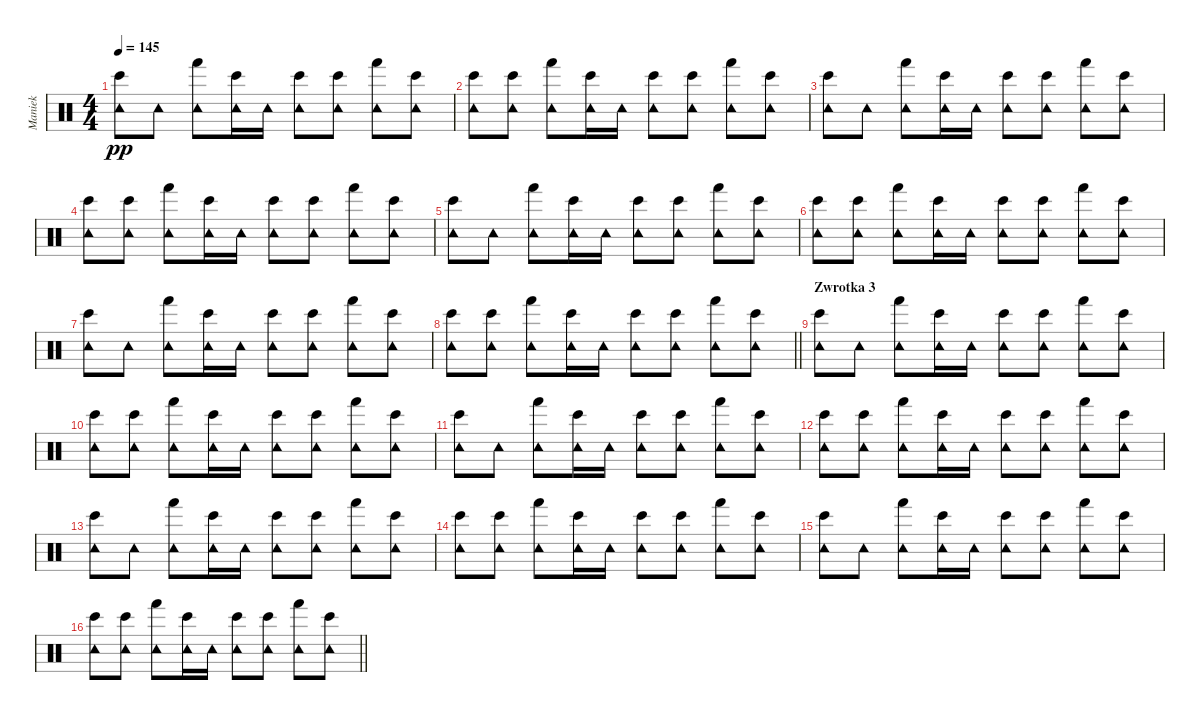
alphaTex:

\track ("Maniek" "Maniek") {instrument percussion}
\staff {score}
\articulation defaults
\ts (4 4)
\tempo 145
\clef neutral
\ks c
("Bongo High (hit)" "Tambourine (hit)").8{dy pp} "Tambourine (hit)".8 ("Hand (hit)" "Tambourine (hit)").8 ("Bongo High (hit)" "Tambourine (hit)").16 "Tambourine (hit)".16 ("Bongo High (hit)" "Tambourine (hit)").8 ("Bongo High (hit)" "Tambourine (hit)").8 ("Hand (hit)" "Tambourine (hit)").8 ("Bongo High (hit)" "Tambourine (hit)").8 |
("Bongo High (hit)" "Tambourine (hit)").8 ("Bongo High (hit)" "Tambourine (hit)").8 ("Hand (hit)" "Tambourine (hit)").8 ("Bongo High (hit)" "Tambourine (hit)").16 "Tambourine (hit)".16 ("Bongo High (hit)" "Tambourine (hit)").8 ("Bongo High (hit)" "Tambourine (hit)").8 ("Hand (hit)" "Tambourine (hit)").8 ("Bongo High (hit)" "Tambourine (hit)").8 |
("Bongo High (hit)" "Tambourine (hit)").8 "Tambourine (hit)".8 ("Hand (hit)" "Tambourine (hit)").8 ("Bongo High (hit)" "Tambourine (hit)").16 "Tambourine (hit)".16 ("Bongo High (hit)" "Tambourine (hit)").8 ("Bongo High (hit)" "Tambourine (hit)").8 ("Hand (hit)" "Tambourine (hit)").8 ("Bongo High (hit)" "Tambourine (hit)").8 |
("Bongo High (hit)" "Tambourine (hit)").8 ("Bongo High (hit)" "Tambourine (hit)").8 ("Hand (hit)" "Tambourine (hit)").8 ("Bongo High (hit)" "Tambourine (hit)").16 "Tambourine (hit)".16 ("Bongo High (hit)" "Tambourine (hit)").8 ("Bongo High (hit)" "Tambourine (hit)").8 ("Hand (hit)" "Tambourine (hit)").8 ("Bongo High (hit)" "Tambourine (hit)").8 |
("Bongo High (hit)" "Tambourine (hit)").8 "Tambourine (hit)".8 ("Hand (hit)" "Tambourine (hit)").8 ("Bongo High (hit)" "Tambourine (hit)").16 "Tambourine (hit)".16 ("Bongo High (hit)" "Tambourine (hit)").8 ("Bongo High (hit)" "Tambourine (hit)").8 ("Hand (hit)" "Tambourine (hit)").8 ("Bongo High (hit)" "Tambourine (hit)").8 |
("Bongo High (hit)" "Tambourine (hit)").8 ("Bongo High (hit)" "Tambourine (hit)").8 ("Hand (hit)" "Tambourine (hit)").8 ("Bongo High (hit)" "Tambourine (hit)").16 "Tambourine (hit)".16 ("Bongo High (hit)" "Tambourine (hit)").8 ("Bongo High (hit)" "Tambourine (hit)").8 ("Hand (hit)" "Tambourine (hit)").8 ("Bongo High (hit)" "Tambourine (hit)").8 |
("Bongo High (hit)" "Tambourine (hit)").8 "Tambourine (hit)".8 ("Hand (hit)" "Tambourine (hit)").8 ("Bongo High (hit)" "Tambourine (hit)").16 "Tambourine (hit)".16 ("Bongo High (hit)" "Tambourine (hit)").8 ("Bongo High (hit)" "Tambourine (hit)").8 ("Hand (hit)" "Tambourine (hit)").8 ("Bongo High (hit)" "Tambourine (hit)").8 |
\barLineRight lightlight
("Bongo High (hit)" "Tambourine (hit)").8 ("Bongo High (hit)" "Tambourine (hit)").8 ("Hand (hit)" "Tambourine (hit)").8 ("Bongo High (hit)" "Tambourine (hit)").16 "Tambourine (hit)".16 ("Bongo High (hit)" "Tambourine (hit)").8 ("Bongo High (hit)" "Tambourine (hit)").8 ("Hand (hit)" "Tambourine (hit)").8 ("Bongo High (hit)" "Tambourine (hit)").8 |
\section ("" "Zwrotka 3")
("Bongo High (hit)" "Tambourine (hit)").8 "Tambourine (hit)".8 ("Hand (hit)" "Tambourine (hit)").8 ("Bongo High (hit)" "Tambourine (hit)").16 "Tambourine (hit)".16 ("Bongo High (hit)" "Tambourine (hit)").8 ("Bongo High (hit)" "Tambourine (hit)").8 ("Hand (hit)" "Tambourine (hit)").8 ("Bongo High (hit)" "Tambourine (hit)").8 |
("Bongo High (hit)" "Tambourine (hit)").8 ("Bongo High (hit)" "Tambourine (hit)").8 ("Hand (hit)" "Tambourine (hit)").8 ("Bongo High (hit)" "Tambourine (hit)").16 "Tambourine (hit)".16 ("Bongo High (hit)" "Tambourine (hit)").8 ("Bongo High (hit)" "Tambourine (hit)").8 ("Hand (hit)" "Tambourine (hit)").8 ("Bongo High (hit)" "Tambourine (hit)").8 |
("Bongo High (hit)" "Tambourine (hit)").8 "Tambourine (hit)".8 ("Hand (hit)" "Tambourine (hit)").8 ("Bongo High (hit)" "Tambourine (hit)").16 "Tambourine (hit)".16 ("Bongo High (hit)" "Tambourine (hit)").8 ("Bongo High (hit)" "Tambourine (hit)").8 ("Hand (hit)" "Tambourine (hit)").8 ("Bongo High (hit)" "Tambourine (hit)").8 |
("Bongo High (hit)" "Tambourine (hit)").8 ("Bongo High (hit)" "Tambourine (hit)").8 ("Hand (hit)" "Tambourine (hit)").8 ("Bongo High (hit)" "Tambourine (hit)").16 "Tambourine (hit)".16 ("Bongo High (hit)" "Tambourine (hit)").8 ("Bongo High (hit)" "Tambourine (hit)").8 ("Hand (hit)" "Tambourine (hit)").8 ("Bongo High (hit)" "Tambourine (hit)").8 |
("Bongo High (hit)" "Tambourine (hit)").8 "Tambourine (hit)".8 ("Hand (hit)" "Tambourine (hit)").8 ("Bongo High (hit)" "Tambourine (hit)").16 "Tambourine (hit)".16 ("Bongo High (hit)" "Tambourine (hit)").8 ("Bongo High (hit)" "Tambourine (hit)").8 ("Hand (hit)" "Tambourine (hit)").8 ("Bongo High (hit)" "Tambourine (hit)").8 |
("Bongo High (hit)" "Tambourine (hit)").8 ("Bongo High (hit)" "Tambourine (hit)").8 ("Hand (hit)" "Tambourine (hit)").8 ("Bongo High (hit)" "Tambourine (hit)").16 "Tambourine (hit)".16 ("Bongo High (hit)" "Tambourine (hit)").8 ("Bongo High (hit)" "Tambourine (hit)").8 ("Hand (hit)" "Tambourine (hit)").8 ("Bongo High (hit)" "Tambourine (hit)").8 |
("Bongo High (hit)" "Tambourine (hit)").8 "Tambourine (hit)".8 ("Hand (hit)" "Tambourine (hit)").8 ("Bongo High (hit)" "Tambourine (hit)").16 "Tambourine (hit)".16 ("Bongo High (hit)" "Tambourine (hit)").8 ("Bongo High (hit)" "Tambourine (hit)").8 ("Hand (hit)" "Tambourine (hit)").8 ("Bongo High (hit)" "Tambourine (hit)").8 |
\barLineRight lightlight
("Bongo High (hit)" "Tambourine (hit)").8 ("Bongo High (hit)" "Tambourine (hit)").8 ("Hand (hit)" "Tambourine (hit)").8 ("Bongo High (hit)" "Tambourine (hit)").16 "Tambourine (hit)".16 ("Bongo High (hit)" "Tambourine (hit)").8 ("Bongo High (hit)" "Tambourine (hit)").8 ("Hand (hit)" "Tambourine (hit)").8 ("Bongo High (hit)" "Tambourine (hit)").8
